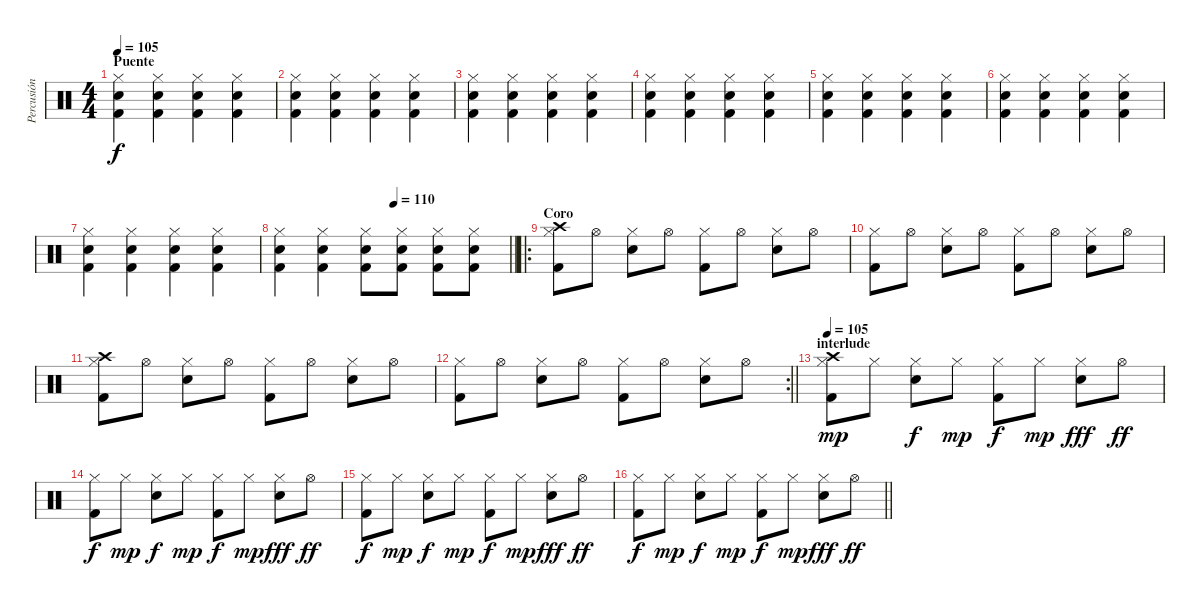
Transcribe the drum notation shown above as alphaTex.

\track ("Percusión" "Percusión") {instrument percussion}
\staff {score}
\articulation defaults
\ts (4 4)
\section ("" "Puente")
\tempo 105
\clef neutral
\ks c
("Snare (hit) 2" "Kick (hit) 2" "Hi-Hat (closed)").4{dy f} ("Snare (hit) 2" "Kick (hit) 2" "Hi-Hat (closed)").4 ("Snare (hit) 2" "Kick (hit) 2" "Hi-Hat (closed)").4 ("Snare (hit) 2" "Kick (hit) 2" "Hi-Hat (closed)").4 |
("Snare (hit) 2" "Kick (hit) 2" "Hi-Hat (closed)").4 ("Snare (hit) 2" "Kick (hit) 2" "Hi-Hat (closed)").4 ("Snare (hit) 2" "Kick (hit) 2" "Hi-Hat (closed)").4 ("Snare (hit) 2" "Kick (hit) 2" "Hi-Hat (closed)").4 |
("Snare (hit) 2" "Kick (hit) 2" "Hi-Hat (closed)").4 ("Snare (hit) 2" "Kick (hit) 2" "Hi-Hat (closed)").4 ("Snare (hit) 2" "Kick (hit) 2" "Hi-Hat (closed)").4 ("Snare (hit) 2" "Kick (hit) 2" "Hi-Hat (closed)").4 |
("Snare (hit) 2" "Kick (hit) 2" "Hi-Hat (closed)").4 ("Snare (hit) 2" "Kick (hit) 2" "Hi-Hat (closed)").4 ("Snare (hit) 2" "Kick (hit) 2" "Hi-Hat (closed)").4 ("Snare (hit) 2" "Kick (hit) 2" "Hi-Hat (closed)").4 |
("Snare (hit) 2" "Kick (hit) 2" "Hi-Hat (closed)").4 ("Snare (hit) 2" "Kick (hit) 2" "Hi-Hat (closed)").4 ("Snare (hit) 2" "Kick (hit) 2" "Hi-Hat (closed)").4 ("Snare (hit) 2" "Kick (hit) 2" "Hi-Hat (closed)").4 |
("Snare (hit) 2" "Kick (hit) 2" "Hi-Hat (closed)").4 ("Snare (hit) 2" "Kick (hit) 2" "Hi-Hat (closed)").4 ("Snare (hit) 2" "Kick (hit) 2" "Hi-Hat (closed)").4 ("Snare (hit) 2" "Kick (hit) 2" "Hi-Hat (closed)").4 |
("Snare (hit) 2" "Kick (hit) 2" "Hi-Hat (closed)").4 ("Snare (hit) 2" "Kick (hit) 2" "Hi-Hat (closed)").4 ("Snare (hit) 2" "Kick (hit) 2" "Hi-Hat (closed)").4 ("Snare (hit) 2" "Kick (hit) 2" "Hi-Hat (closed)").4 |
\tempo (110 0.5)
\barLineRight lightlight
("Snare (hit) 2" "Kick (hit) 2" "Hi-Hat (closed)").4 ("Snare (hit) 2" "Kick (hit) 2" "Hi-Hat (closed)").4 ("Snare (hit) 2" "Kick (hit) 2" "Hi-Hat (closed)").8 ("Snare (hit) 2" "Kick (hit) 2" "Hi-Hat (closed)").8 ("Snare (hit) 2" "Kick (hit) 2" "Hi-Hat (closed)").8 ("Snare (hit) 2" "Kick (hit) 2" "Hi-Hat (closed)").8 |
\ro
\section ("" "Coro")
("Crash high (hit)" "Kick (hit) 2" "Hi-Hat (closed)").8 "Hi-Hat (open)".8 ("Snare (hit) 2" "Hi-Hat (closed)").8 "Hi-Hat (open)".8 ("Kick (hit) 2" "Hi-Hat (closed)").8 "Hi-Hat (open)".8 ("Snare (hit) 2" "Hi-Hat (closed)").8 "Hi-Hat (open)".8 |
("Kick (hit) 2" "Hi-Hat (closed)").8 "Hi-Hat (open)".8 ("Snare (hit) 2" "Hi-Hat (closed)").8 "Hi-Hat (open)".8 ("Kick (hit) 2" "Hi-Hat (closed)").8 "Hi-Hat (open)".8 ("Snare (hit) 2" "Hi-Hat (closed)").8 "Hi-Hat (open)".8 |
("Crash high (hit)" "Kick (hit) 2" "Hi-Hat (closed)").8 "Hi-Hat (open)".8 ("Snare (hit) 2" "Hi-Hat (closed)").8 "Hi-Hat (open)".8 ("Kick (hit) 2" "Hi-Hat (closed)").8 "Hi-Hat (open)".8 ("Snare (hit) 2" "Hi-Hat (closed)").8 "Hi-Hat (open)".8 |
\rc 2
\barLineRight lightlight
("Kick (hit) 2" "Hi-Hat (closed)").8 "Hi-Hat (open)".8 ("Snare (hit) 2" "Hi-Hat (closed)").8 "Hi-Hat (open)".8 ("Kick (hit) 2" "Hi-Hat (closed)").8 "Hi-Hat (open)".8 ("Snare (hit) 2" "Hi-Hat (closed)").8 "Hi-Hat (open)".8 |
\section ("" "interlude")
\tempo 105
("Crash high (hit)" "Kick (hit) 2" "Hi-Hat (closed)").8{dy mp} "Hi-Hat (closed)".8 ("Snare (hit) 2" "Hi-Hat (closed)").8{dy f} "Hi-Hat (closed)".8{dy mp} ("Kick (hit) 2" "Hi-Hat (closed)").8{dy f} "Hi-Hat (closed)".8{dy mp} ("Snare (hit) 2" "Hi-Hat (closed)").8{dy fff} "Hi-Hat (open)".8{dy ff} |
("Kick (hit) 2" "Hi-Hat (closed)").8{dy f} "Hi-Hat (closed)".8{dy mp} ("Snare (hit) 2" "Hi-Hat (closed)").8{dy f} "Hi-Hat (closed)".8{dy mp} ("Kick (hit) 2" "Hi-Hat (closed)").8{dy f} "Hi-Hat (closed)".8{dy mp} ("Snare (hit) 2" "Hi-Hat (closed)").8{dy fff} "Hi-Hat (open)".8{dy ff} |
("Kick (hit) 2" "Hi-Hat (closed)").8{dy f} "Hi-Hat (closed)".8{dy mp} ("Snare (hit) 2" "Hi-Hat (closed)").8{dy f} "Hi-Hat (closed)".8{dy mp} ("Kick (hit) 2" "Hi-Hat (closed)").8{dy f} "Hi-Hat (closed)".8{dy mp} ("Snare (hit) 2" "Hi-Hat (closed)").8{dy fff} "Hi-Hat (open)".8{dy ff} |
\barLineRight lightlight
("Kick (hit) 2" "Hi-Hat (closed)").8{dy f} "Hi-Hat (closed)".8{dy mp} ("Snare (hit) 2" "Hi-Hat (closed)").8{dy f} "Hi-Hat (closed)".8{dy mp} ("Kick (hit) 2" "Hi-Hat (closed)").8{dy f} "Hi-Hat (closed)".8{dy mp} ("Snare (hit) 2" "Hi-Hat (closed)").8{dy fff} "Hi-Hat (open)".8{dy ff}
